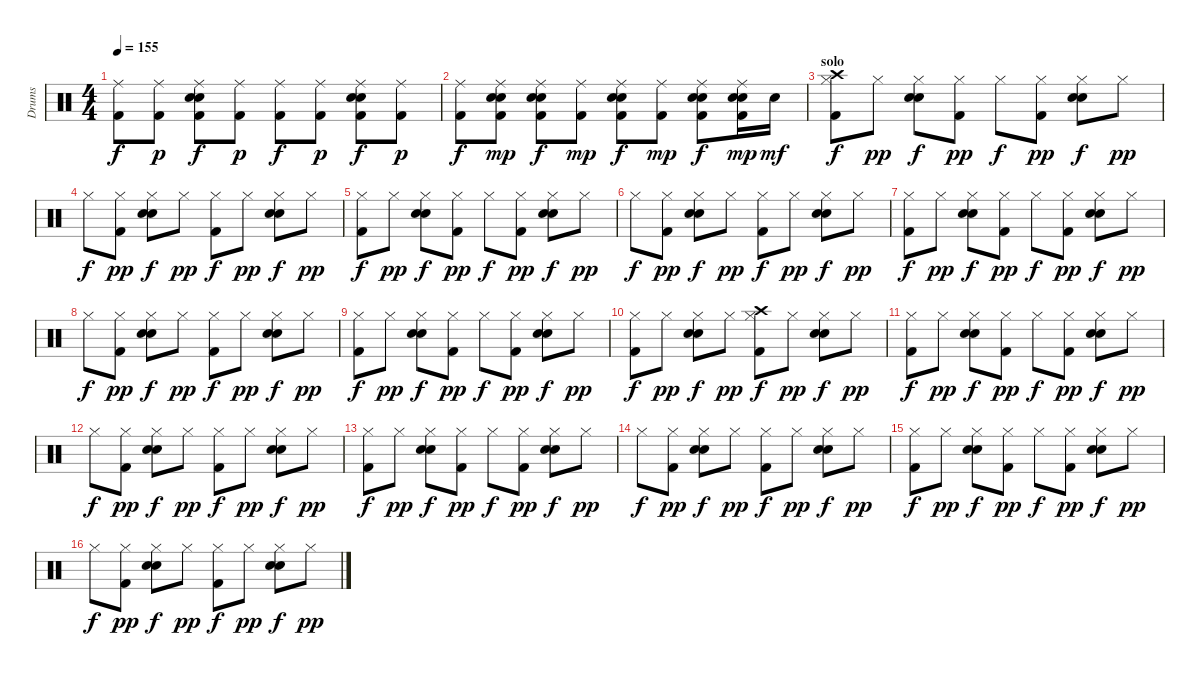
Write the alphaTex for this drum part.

\track ("Drums" "Drums") {instrument percussion}
\staff {score}
\articulation defaults
\ts (4 4)
\tempo 155
\clef neutral
\ks c
("Ride (middle)" "Kick (hit) 2").8{dy f} ("Ride (middle)" "Kick (hit) 2").8{dy p} ("Ride (middle)" "Snare (hit) 2" "Electric Snare (hit)" "Kick (hit) 2").8{dy f} ("Ride (middle)" "Kick (hit) 2").8{dy p} ("Ride (middle)" "Kick (hit) 2").8{dy f} ("Ride (middle)" "Kick (hit) 2").8{dy p} ("Ride (middle)" "Snare (hit) 2" "Electric Snare (hit)" "Kick (hit) 2").8{dy f} ("Ride (middle)" "Kick (hit) 2").8{dy p} |
("Ride (middle)" "Kick (hit) 2").8{dy f} ("Ride (middle)" "Snare (hit) 2" "Electric Snare (hit)" "Kick (hit) 2").8{dy mp} ("Ride (middle)" "Snare (hit) 2" "Electric Snare (hit)" "Kick (hit) 2").8{dy f} ("Ride (middle)" "Kick (hit) 2").8{dy mp} ("Ride (middle)" "Snare (hit) 2" "Electric Snare (hit)" "Kick (hit) 2").8{dy f} ("Ride (middle)" "Kick (hit) 2").8{dy mp} ("Ride (middle)" "Snare (hit) 2" "Electric Snare (hit)" "Kick (hit) 2").8{dy f} ("Ride (middle)" "Snare (hit) 2" "Electric Snare (hit)" "Kick (hit) 2").16{dy mp} "Snare (hit) 2".16{dy mf} |
\section ("" "solo")
("Hi-Hat (closed)" "Crash high (hit)" "Kick (hit) 2").8{dy f} "Hi-Hat (closed)".8{dy pp} ("Hi-Hat (closed)" "Snare (hit) 2" "Electric Snare (hit)").8{dy f} ("Hi-Hat (closed)" "Kick (hit) 2").8{dy pp} "Hi-Hat (closed)".8{dy f} ("Hi-Hat (closed)" "Kick (hit) 2").8{dy pp} ("Hi-Hat (closed)" "Snare (hit) 2" "Electric Snare (hit)").8{dy f} "Hi-Hat (closed)".8{dy pp} |
"Hi-Hat (closed)".8{dy f} ("Hi-Hat (closed)" "Kick (hit) 2").8{dy pp} ("Hi-Hat (closed)" "Snare (hit) 2" "Electric Snare (hit)").8{dy f} "Hi-Hat (closed)".8{dy pp} ("Hi-Hat (closed)" "Kick (hit) 2").8{dy f} "Hi-Hat (closed)".8{dy pp} ("Hi-Hat (closed)" "Snare (hit) 2" "Electric Snare (hit)").8{dy f} "Hi-Hat (closed)".8{dy pp} |
("Hi-Hat (closed)" "Kick (hit) 2").8{dy f} "Hi-Hat (closed)".8{dy pp} ("Hi-Hat (closed)" "Snare (hit) 2" "Electric Snare (hit)").8{dy f} ("Hi-Hat (closed)" "Kick (hit) 2").8{dy pp} "Hi-Hat (closed)".8{dy f} ("Hi-Hat (closed)" "Kick (hit) 2").8{dy pp} ("Hi-Hat (closed)" "Snare (hit) 2" "Electric Snare (hit)").8{dy f} "Hi-Hat (closed)".8{dy pp} |
"Hi-Hat (closed)".8{dy f} ("Hi-Hat (closed)" "Kick (hit) 2").8{dy pp} ("Hi-Hat (closed)" "Snare (hit) 2" "Electric Snare (hit)").8{dy f} "Hi-Hat (closed)".8{dy pp} ("Hi-Hat (closed)" "Kick (hit) 2").8{dy f} "Hi-Hat (closed)".8{dy pp} ("Hi-Hat (closed)" "Snare (hit) 2" "Electric Snare (hit)").8{dy f} "Hi-Hat (closed)".8{dy pp} |
("Hi-Hat (closed)" "Kick (hit) 2").8{dy f} "Hi-Hat (closed)".8{dy pp} ("Hi-Hat (closed)" "Snare (hit) 2" "Electric Snare (hit)").8{dy f} ("Hi-Hat (closed)" "Kick (hit) 2").8{dy pp} "Hi-Hat (closed)".8{dy f} ("Hi-Hat (closed)" "Kick (hit) 2").8{dy pp} ("Hi-Hat (closed)" "Snare (hit) 2" "Electric Snare (hit)").8{dy f} "Hi-Hat (closed)".8{dy pp} |
"Hi-Hat (closed)".8{dy f} ("Hi-Hat (closed)" "Kick (hit) 2").8{dy pp} ("Hi-Hat (closed)" "Snare (hit) 2" "Electric Snare (hit)").8{dy f} "Hi-Hat (closed)".8{dy pp} ("Hi-Hat (closed)" "Kick (hit) 2").8{dy f} "Hi-Hat (closed)".8{dy pp} ("Hi-Hat (closed)" "Snare (hit) 2" "Electric Snare (hit)").8{dy f} "Hi-Hat (closed)".8{dy pp} |
("Hi-Hat (closed)" "Kick (hit) 2").8{dy f} "Hi-Hat (closed)".8{dy pp} ("Hi-Hat (closed)" "Snare (hit) 2" "Electric Snare (hit)").8{dy f} ("Hi-Hat (closed)" "Kick (hit) 2").8{dy pp} "Hi-Hat (closed)".8{dy f} ("Hi-Hat (closed)" "Kick (hit) 2").8{dy pp} ("Hi-Hat (closed)" "Snare (hit) 2" "Electric Snare (hit)").8{dy f} "Hi-Hat (closed)".8{dy pp} |
("Hi-Hat (closed)" "Kick (hit) 2").8{dy f} "Hi-Hat (closed)".8{dy pp} ("Hi-Hat (closed)" "Snare (hit) 2" "Electric Snare (hit)").8{dy f} "Hi-Hat (closed)".8{dy pp} ("Hi-Hat (closed)" "Crash high (hit)" "Kick (hit) 2").8{dy f} "Hi-Hat (closed)".8{dy pp} ("Hi-Hat (closed)" "Snare (hit) 2" "Electric Snare (hit)").8{dy f} "Hi-Hat (closed)".8{dy pp} |
\section ("" "")
("Hi-Hat (closed)" "Kick (hit) 2").8{dy f} "Hi-Hat (closed)".8{dy pp} ("Hi-Hat (closed)" "Snare (hit) 2" "Electric Snare (hit)").8{dy f} ("Hi-Hat (closed)" "Kick (hit) 2").8{dy pp} "Hi-Hat (closed)".8{dy f} ("Hi-Hat (closed)" "Kick (hit) 2").8{dy pp} ("Hi-Hat (closed)" "Snare (hit) 2" "Electric Snare (hit)").8{dy f} "Hi-Hat (closed)".8{dy pp} |
"Hi-Hat (closed)".8{dy f} ("Hi-Hat (closed)" "Kick (hit) 2").8{dy pp} ("Hi-Hat (closed)" "Snare (hit) 2" "Electric Snare (hit)").8{dy f} "Hi-Hat (closed)".8{dy pp} ("Hi-Hat (closed)" "Kick (hit) 2").8{dy f} "Hi-Hat (closed)".8{dy pp} ("Hi-Hat (closed)" "Snare (hit) 2" "Electric Snare (hit)").8{dy f} "Hi-Hat (closed)".8{dy pp} |
("Hi-Hat (closed)" "Kick (hit) 2").8{dy f} "Hi-Hat (closed)".8{dy pp} ("Hi-Hat (closed)" "Snare (hit) 2" "Electric Snare (hit)").8{dy f} ("Hi-Hat (closed)" "Kick (hit) 2").8{dy pp} "Hi-Hat (closed)".8{dy f} ("Hi-Hat (closed)" "Kick (hit) 2").8{dy pp} ("Hi-Hat (closed)" "Snare (hit) 2" "Electric Snare (hit)").8{dy f} "Hi-Hat (closed)".8{dy pp} |
"Hi-Hat (closed)".8{dy f} ("Hi-Hat (closed)" "Kick (hit) 2").8{dy pp} ("Hi-Hat (closed)" "Snare (hit) 2" "Electric Snare (hit)").8{dy f} "Hi-Hat (closed)".8{dy pp} ("Hi-Hat (closed)" "Kick (hit) 2").8{dy f} "Hi-Hat (closed)".8{dy pp} ("Hi-Hat (closed)" "Snare (hit) 2" "Electric Snare (hit)").8{dy f} "Hi-Hat (closed)".8{dy pp} |
("Hi-Hat (closed)" "Kick (hit) 2").8{dy f} "Hi-Hat (closed)".8{dy pp} ("Hi-Hat (closed)" "Snare (hit) 2" "Electric Snare (hit)").8{dy f} ("Hi-Hat (closed)" "Kick (hit) 2").8{dy pp} "Hi-Hat (closed)".8{dy f} ("Hi-Hat (closed)" "Kick (hit) 2").8{dy pp} ("Hi-Hat (closed)" "Snare (hit) 2" "Electric Snare (hit)").8{dy f} "Hi-Hat (closed)".8{dy pp} |
"Hi-Hat (closed)".8{dy f} ("Hi-Hat (closed)" "Kick (hit) 2").8{dy pp} ("Hi-Hat (closed)" "Snare (hit) 2" "Electric Snare (hit)").8{dy f} "Hi-Hat (closed)".8{dy pp} ("Hi-Hat (closed)" "Kick (hit) 2").8{dy f} "Hi-Hat (closed)".8{dy pp} ("Hi-Hat (closed)" "Snare (hit) 2" "Electric Snare (hit)").8{dy f} "Hi-Hat (closed)".8{dy pp}
